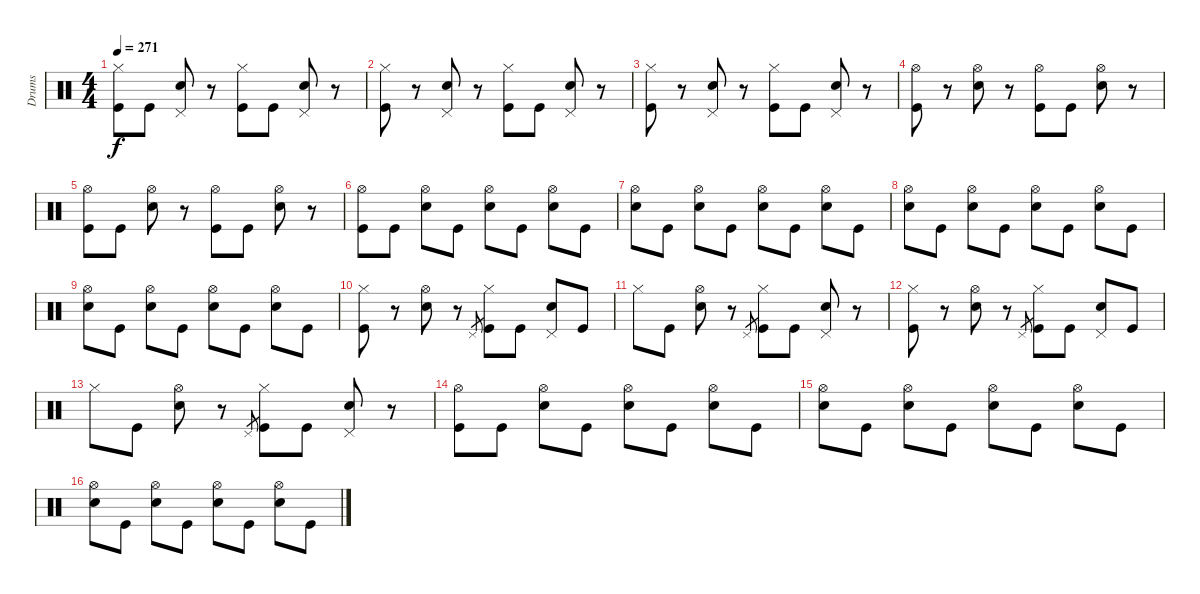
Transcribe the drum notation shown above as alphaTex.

\track ("Drums" "Drums") {instrument percussion}
\staff {score}
\articulation defaults
\ts (4 4)
\tempo 271
\clef neutral
\ks c
("Hi-Hat (closed)" "Kick (hit)").8{dy f} "Kick (hit)".8 ("Pedal Hi-Hat (hit)" "Electric Snare (hit)").8 r.8 ("Hi-Hat (closed)" "Kick (hit)").8 "Kick (hit)".8 ("Pedal Hi-Hat (hit)" "Electric Snare (hit)").8 r.8 |
("Hi-Hat (closed)" "Kick (hit)").8 r.8 ("Pedal Hi-Hat (hit)" "Electric Snare (hit)").8 r.8 ("Hi-Hat (closed)" "Kick (hit)").8 "Kick (hit)".8 ("Pedal Hi-Hat (hit)" "Electric Snare (hit)").8 r.8 |
("Hi-Hat (closed)" "Kick (hit)").8 r.8 ("Pedal Hi-Hat (hit)" "Electric Snare (hit)").8 r.8 ("Hi-Hat (closed)" "Kick (hit)").8 "Kick (hit)".8 ("Pedal Hi-Hat (hit)" "Electric Snare (hit)").8 r.8 |
("Hi-Hat (open)" "Kick (hit)").8 r.8 ("Hi-Hat (open)" "Electric Snare (hit)").8 r.8 ("Hi-Hat (open)" "Kick (hit)").8 "Kick (hit)".8 ("Hi-Hat (open)" "Electric Snare (hit)").8 r.8 |
("Hi-Hat (open)" "Kick (hit)").8 "Kick (hit)".8 ("Hi-Hat (open)" "Electric Snare (hit)").8 r.8 ("Hi-Hat (open)" "Kick (hit)").8 "Kick (hit)".8 ("Hi-Hat (open)" "Electric Snare (hit)").8 r.8 |
("Hi-Hat (open)" "Kick (hit)").8 "Kick (hit)".8 ("Hi-Hat (open)" "Electric Snare (hit)").8 "Kick (hit)".8 ("Hi-Hat (open)" "Electric Snare (hit)").8 "Kick (hit)".8 ("Hi-Hat (open)" "Electric Snare (hit)").8 "Kick (hit)".8 |
("Hi-Hat (open)" "Electric Snare (hit)").8 "Kick (hit)".8 ("Hi-Hat (open)" "Electric Snare (hit)").8 "Kick (hit)".8 ("Hi-Hat (open)" "Electric Snare (hit)").8 "Kick (hit)".8 ("Hi-Hat (open)" "Electric Snare (hit)").8 "Kick (hit)".8 |
("Hi-Hat (open)" "Electric Snare (hit)").8 "Kick (hit)".8 ("Hi-Hat (open)" "Electric Snare (hit)").8 "Kick (hit)".8 ("Hi-Hat (open)" "Electric Snare (hit)").8 "Kick (hit)".8 ("Hi-Hat (open)" "Electric Snare (hit)").8 "Kick (hit)".8 |
("Hi-Hat (open)" "Electric Snare (hit)").8 "Kick (hit)".8 ("Hi-Hat (open)" "Electric Snare (hit)").8 "Kick (hit)".8 ("Hi-Hat (open)" "Electric Snare (hit)").8 "Kick (hit)".8 ("Hi-Hat (open)" "Electric Snare (hit)").8 "Kick (hit)".8 |
("Hi-Hat (closed)" "Kick (hit)").8 r.8 ("Hi-Hat (open)" "Electric Snare (hit)").8 r.8 "Pedal Hi-Hat (hit)".8{gr} ("Hi-Hat (closed)" "Kick (hit)").8 "Kick (hit)".8 ("Pedal Hi-Hat (hit)" "Electric Snare (hit)").8 "Kick (hit)".8 |
"Hi-Hat (closed)".8 "Kick (hit)".8 ("Hi-Hat (open)" "Electric Snare (hit)").8 r.8 "Pedal Hi-Hat (hit)".8{gr} ("Hi-Hat (closed)" "Kick (hit)").8 "Kick (hit)".8 ("Pedal Hi-Hat (hit)" "Electric Snare (hit)").8 r.8 |
("Hi-Hat (closed)" "Kick (hit)").8 r.8 ("Hi-Hat (open)" "Electric Snare (hit)").8 r.8 "Pedal Hi-Hat (hit)".8{gr} ("Hi-Hat (closed)" "Kick (hit)").8 "Kick (hit)".8 ("Pedal Hi-Hat (hit)" "Electric Snare (hit)").8 "Kick (hit)".8 |
"Hi-Hat (closed)".8 "Kick (hit)".8 ("Hi-Hat (open)" "Electric Snare (hit)").8 r.8 "Pedal Hi-Hat (hit)".8{gr} ("Hi-Hat (closed)" "Kick (hit)").8 "Kick (hit)".8 ("Pedal Hi-Hat (hit)" "Electric Snare (hit)").8 r.8 |
("Hi-Hat (open)" "Kick (hit)").8 "Kick (hit)".8 ("Hi-Hat (open)" "Electric Snare (hit)").8 "Kick (hit)".8 ("Hi-Hat (open)" "Electric Snare (hit)").8 "Kick (hit)".8 ("Hi-Hat (open)" "Electric Snare (hit)").8 "Kick (hit)".8 |
("Hi-Hat (open)" "Electric Snare (hit)").8 "Kick (hit)".8 ("Hi-Hat (open)" "Electric Snare (hit)").8 "Kick (hit)".8 ("Hi-Hat (open)" "Electric Snare (hit)").8 "Kick (hit)".8 ("Hi-Hat (open)" "Electric Snare (hit)").8 "Kick (hit)".8 |
("Hi-Hat (open)" "Electric Snare (hit)").8 "Kick (hit)".8 ("Hi-Hat (open)" "Electric Snare (hit)").8 "Kick (hit)".8 ("Hi-Hat (open)" "Electric Snare (hit)").8 "Kick (hit)".8 ("Hi-Hat (open)" "Electric Snare (hit)").8 "Kick (hit)".8
